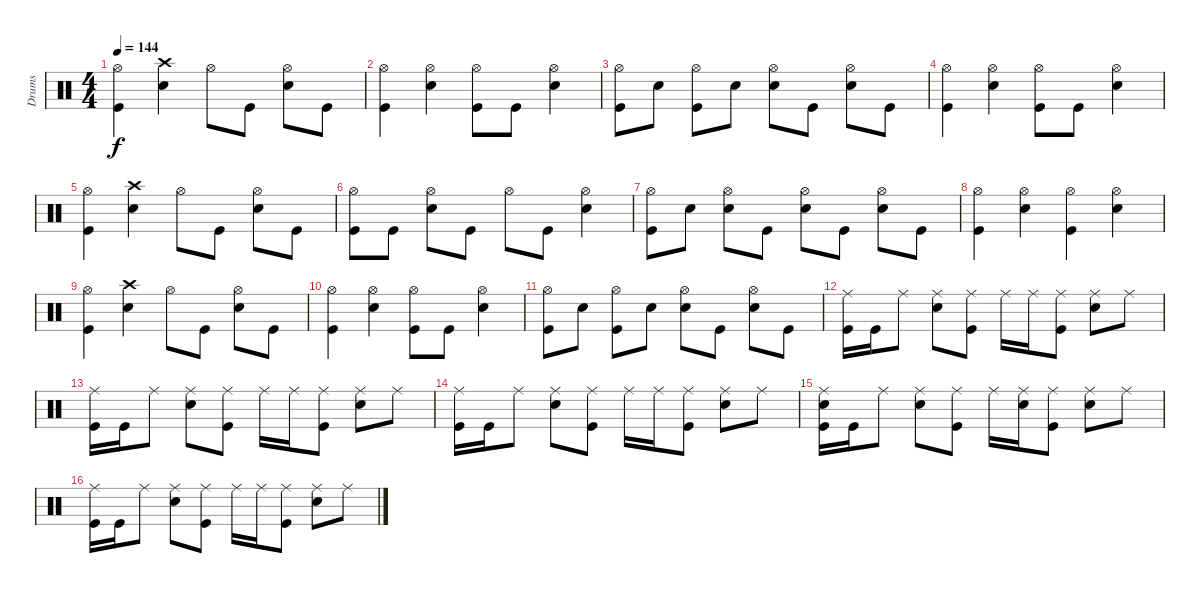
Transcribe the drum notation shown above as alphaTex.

\track ("Drums" "Drums") {instrument percussion}
\staff {score}
\articulation defaults
\ts (4 4)
\tempo 144
\clef neutral
\ks c
("Hi-Hat (open)" "Kick (hit)").4{dy f} ("Crash high (hit)" "Snare (hit) 2").4 "Hi-Hat (open)".8 "Kick (hit)".8 ("Hi-Hat (open)" "Snare (hit) 2").8 "Kick (hit)".8 |
("Hi-Hat (open)" "Kick (hit)").4 ("Hi-Hat (open)" "Snare (hit) 2").4 ("Hi-Hat (open)" "Kick (hit)").8 "Kick (hit)".8 ("Hi-Hat (open)" "Snare (hit) 2").4 |
("Hi-Hat (open)" "Kick (hit)").8 "Snare (hit) 2".8 ("Hi-Hat (open)" "Kick (hit)").8 "Snare (hit) 2".8 ("Hi-Hat (open)" "Snare (hit) 2").8 "Kick (hit)".8 ("Hi-Hat (open)" "Snare (hit) 2").8 "Kick (hit)".8 |
("Hi-Hat (open)" "Kick (hit)").4 ("Hi-Hat (open)" "Snare (hit) 2").4 ("Hi-Hat (open)" "Kick (hit)").8 "Kick (hit)".8 ("Hi-Hat (open)" "Snare (hit) 2").4 |
("Hi-Hat (open)" "Kick (hit)").4 ("Crash high (hit)" "Snare (hit) 2").4 "Hi-Hat (open)".8 "Kick (hit)".8 ("Hi-Hat (open)" "Snare (hit) 2").8 "Kick (hit)".8 |
("Hi-Hat (open)" "Kick (hit)").8 "Kick (hit)".8 ("Hi-Hat (open)" "Snare (hit) 2").8 "Kick (hit)".8 "Hi-Hat (open)".8 "Kick (hit)".8 ("Hi-Hat (open)" "Snare (hit) 2").4 |
("Hi-Hat (open)" "Kick (hit)").8 "Snare (hit) 2".8 ("Hi-Hat (open)" "Snare (hit) 2").8 "Kick (hit)".8 ("Hi-Hat (open)" "Snare (hit) 2").8 "Kick (hit)".8 ("Hi-Hat (open)" "Snare (hit) 2").8 "Kick (hit)".8 |
("Hi-Hat (open)" "Kick (hit)").4 ("Hi-Hat (open)" "Snare (hit) 2").4 ("Hi-Hat (open)" "Kick (hit)").4 ("Hi-Hat (open)" "Snare (hit) 2").4 |
("Hi-Hat (open)" "Kick (hit)").4 ("Crash high (hit)" "Snare (hit) 2").4 "Hi-Hat (open)".8 "Kick (hit)".8 ("Hi-Hat (open)" "Snare (hit) 2").8 "Kick (hit)".8 |
("Hi-Hat (open)" "Kick (hit)").4 ("Hi-Hat (open)" "Snare (hit) 2").4 ("Hi-Hat (open)" "Kick (hit)").8 "Kick (hit)".8 ("Hi-Hat (open)" "Snare (hit) 2").4 |
("Hi-Hat (open)" "Kick (hit)").8 "Snare (hit) 2".8 ("Hi-Hat (open)" "Kick (hit)").8 "Snare (hit) 2".8 ("Hi-Hat (open)" "Snare (hit) 2").8 "Kick (hit)".8 ("Hi-Hat (open)" "Snare (hit) 2").8 "Kick (hit)".8 |
("Ride (middle)" "Kick (hit)").16 "Kick (hit)".16 "Ride (middle)".8 ("Ride (middle)" "Snare (hit) 2").8 ("Ride (middle)" "Kick (hit)").8 "Ride (middle)".16 "Ride (middle)".16 ("Ride (middle)" "Kick (hit)").8 ("Ride (middle)" "Snare (hit) 2").8 "Ride (middle)".8 |
("Ride (middle)" "Kick (hit)").16 "Kick (hit)".16 "Ride (middle)".8 ("Ride (middle)" "Snare (hit) 2").8 ("Ride (middle)" "Kick (hit)").8 "Ride (middle)".16 "Ride (middle)".16 ("Ride (middle)" "Kick (hit)").8 ("Ride (middle)" "Snare (hit) 2").8 "Ride (middle)".8 |
("Ride (middle)" "Kick (hit)").16 "Kick (hit)".16 "Ride (middle)".8 ("Ride (middle)" "Snare (hit) 2").8 ("Ride (middle)" "Kick (hit)").8 "Ride (middle)".16 "Ride (middle)".16 ("Ride (middle)" "Kick (hit)").8 ("Ride (middle)" "Snare (hit) 2").8 "Ride (middle)".8 |
("Ride (middle)" "Snare (hit) 2" "Kick (hit)").16 "Kick (hit)".16 "Ride (middle)".8 ("Ride (middle)" "Snare (hit) 2").8 ("Ride (middle)" "Kick (hit)").8 "Ride (middle)".16 ("Ride (middle)" "Snare (hit) 2").16 ("Ride (middle)" "Kick (hit)").8 ("Ride (middle)" "Snare (hit) 2").8 "Ride (middle)".8 |
("Ride (middle)" "Kick (hit)").16 "Kick (hit)".16 "Ride (middle)".8 ("Ride (middle)" "Snare (hit) 2").8 ("Ride (middle)" "Kick (hit)").8 "Ride (middle)".16 "Ride (middle)".16 ("Ride (middle)" "Kick (hit)").8 ("Ride (middle)" "Snare (hit) 2").8 "Ride (middle)".8
